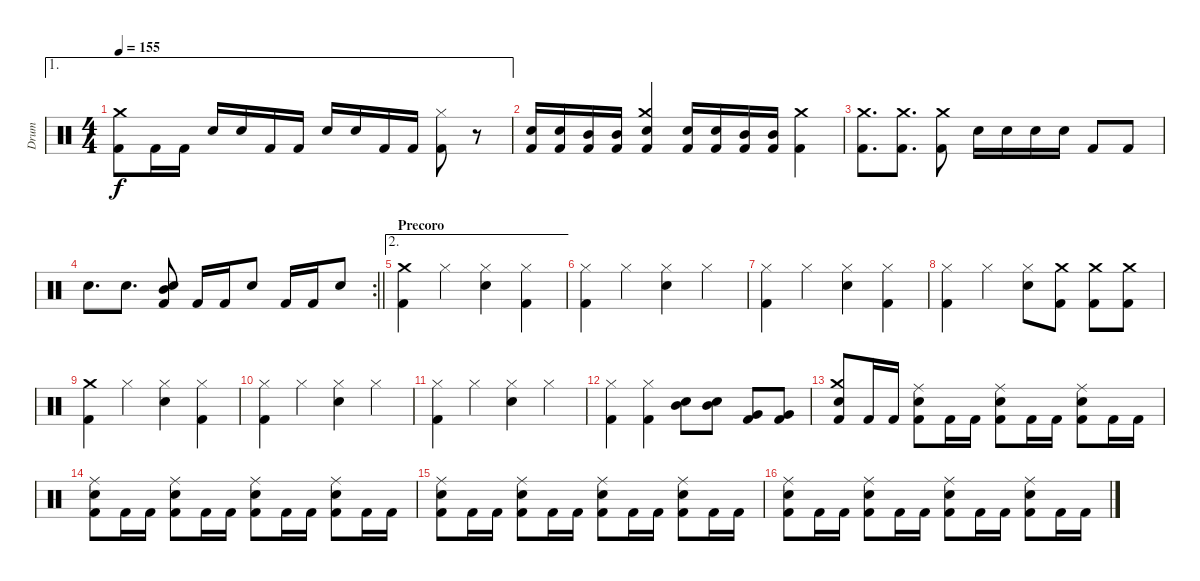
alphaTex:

\track ("Drum" "Drum") {instrument percussion}
\staff {score}
\articulation defaults
\ae 1
\ts (4 4)
\tempo 155
\clef neutral
\ks c
("Kick (hit) 2" "Crash medium (hit)").8{dy f} "Kick (hit) 2".16 "Kick (hit) 2".16 "Electric Snare (hit)".16 "Electric Snare (hit)".16 "Kick (hit) 2".16 "Kick (hit) 2".16 "Electric Snare (hit)".16 "Electric Snare (hit)".16 "Kick (hit) 2".16 "Kick (hit) 2".16 ("Kick (hit) 2" "Hi-Hat (closed)").8 r.8 |
("Kick (hit) 2" "Electric Snare (hit)").16 ("Kick (hit) 2" "Electric Snare (hit)").16 ("Kick (hit) 2" "Mid Tom (hit)").16 ("Kick (hit) 2" "Mid Tom (hit)").16 ("Kick (hit) 2" "Crash medium (hit)" "Electric Snare (hit)").4 ("Kick (hit) 2" "Electric Snare (hit)").16 ("Kick (hit) 2" "Electric Snare (hit)").16 ("Kick (hit) 2" "Mid Tom (hit)").16 ("Kick (hit) 2" "Mid Tom (hit)").16 ("Kick (hit) 2" "Crash medium (hit)").4 |
("Kick (hit) 2" "Crash medium (hit)").8{d} ("Kick (hit) 2" "Crash medium (hit)").8{d} ("Kick (hit) 2" "Crash medium (hit)").8 "Electric Snare (hit)".16 "Electric Snare (hit)".16 "Electric Snare (hit)".16 "Electric Snare (hit)".16 "Kick (hit) 2".8 "Kick (hit) 2".8 |
\rc 2
\barLineRight lightlight "Electric Snare (hit)".8{d} "Electric Snare (hit)".8{d}
("Kick (hit) 2" "Mid Tom (hit)" "Electric Snare (hit)").8 "Kick (hit) 2".16 "Kick (hit) 2".16 "Electric Snare (hit)".8 "Kick (hit) 2".16 "Kick (hit) 2".16 "Electric Snare (hit)".8 |
\ae 2
\section ("" "Precoro")
("Kick (hit) 2" "Crash medium (hit)").4 "Hi-Hat (closed)".4 ("Hi-Hat (closed)" "Electric Snare (hit)").4 ("Kick (hit) 2" "Hi-Hat (closed)").4 |
("Kick (hit) 2" "Hi-Hat (closed)").4 "Hi-Hat (closed)".4 ("Hi-Hat (closed)" "Electric Snare (hit)").4 "Hi-Hat (closed)".4 |
("Kick (hit) 2" "Hi-Hat (closed)").4 "Hi-Hat (closed)".4 ("Hi-Hat (closed)" "Electric Snare (hit)").4 ("Kick (hit) 2" "Hi-Hat (closed)").4 |
("Kick (hit) 2" "Hi-Hat (closed)").4 "Hi-Hat (closed)".4 ("Hi-Hat (closed)" "Electric Snare (hit)").8 ("Kick (hit) 2" "Crash medium (hit)").8 ("Kick (hit) 2" "Crash medium (hit)").8 ("Kick (hit) 2" "Crash medium (hit)").8 |
("Kick (hit) 2" "Crash medium (hit)").4 "Hi-Hat (closed)".4 ("Hi-Hat (closed)" "Electric Snare (hit)").4 ("Kick (hit) 2" "Hi-Hat (closed)").4 |
("Kick (hit) 2" "Hi-Hat (closed)").4 "Hi-Hat (closed)".4 ("Hi-Hat (closed)" "Electric Snare (hit)").4 "Hi-Hat (closed)".4 |
("Kick (hit) 2" "Hi-Hat (closed)").4 "Hi-Hat (closed)".4 ("Hi-Hat (closed)" "Electric Snare (hit)").4 "Hi-Hat (closed)".4 |
("Kick (hit) 2" "Hi-Hat (closed)").4 ("Kick (hit) 2" "Hi-Hat (closed)").4 ("Mid Tom (hit)" "Electric Snare (hit)").8 ("Mid Tom (hit)" "Electric Snare (hit)").8 ("Kick (hit) 2" "Very Low Tom (hit)").8 ("Kick (hit) 2" "Very Low Tom (hit)").8 |
("Kick (hit) 2" "Crash medium (hit)" "Electric Snare (hit)").8 "Kick (hit) 2".16 "Kick (hit) 2".16 ("Kick (hit) 2" "Ride (middle)" "Electric Snare (hit)").8 "Kick (hit) 2".16 "Kick (hit) 2".16 ("Kick (hit) 2" "Ride (middle)" "Electric Snare (hit)").8 "Kick (hit) 2".16 "Kick (hit) 2".16 ("Kick (hit) 2" "Ride (middle)" "Electric Snare (hit)").8 "Kick (hit) 2".16 "Kick (hit) 2".16 |
("Kick (hit) 2" "Ride (middle)" "Electric Snare (hit)").8 "Kick (hit) 2".16 "Kick (hit) 2".16 ("Kick (hit) 2" "Ride (middle)" "Electric Snare (hit)").8 "Kick (hit) 2".16 "Kick (hit) 2".16 ("Kick (hit) 2" "Ride (middle)" "Electric Snare (hit)").8 "Kick (hit) 2".16 "Kick (hit) 2".16 ("Kick (hit) 2" "Ride (middle)" "Electric Snare (hit)").8 "Kick (hit) 2".16 "Kick (hit) 2".16 |
("Kick (hit) 2" "Ride (middle)" "Electric Snare (hit)").8 "Kick (hit) 2".16 "Kick (hit) 2".16 ("Kick (hit) 2" "Ride (middle)" "Electric Snare (hit)").8 "Kick (hit) 2".16 "Kick (hit) 2".16 ("Kick (hit) 2" "Ride (middle)" "Electric Snare (hit)").8 "Kick (hit) 2".16 "Kick (hit) 2".16 ("Kick (hit) 2" "Ride (middle)" "Electric Snare (hit)").8 "Kick (hit) 2".16 "Kick (hit) 2".16 |
("Kick (hit) 2" "Ride (middle)" "Electric Snare (hit)").8 "Kick (hit) 2".16 "Kick (hit) 2".16 ("Kick (hit) 2" "Ride (middle)" "Electric Snare (hit)").8 "Kick (hit) 2".16 "Kick (hit) 2".16 ("Kick (hit) 2" "Ride (middle)" "Electric Snare (hit)").8 "Kick (hit) 2".16 "Kick (hit) 2".16 ("Kick (hit) 2" "Ride (middle)" "Electric Snare (hit)").8 "Kick (hit) 2".16 "Kick (hit) 2".16
